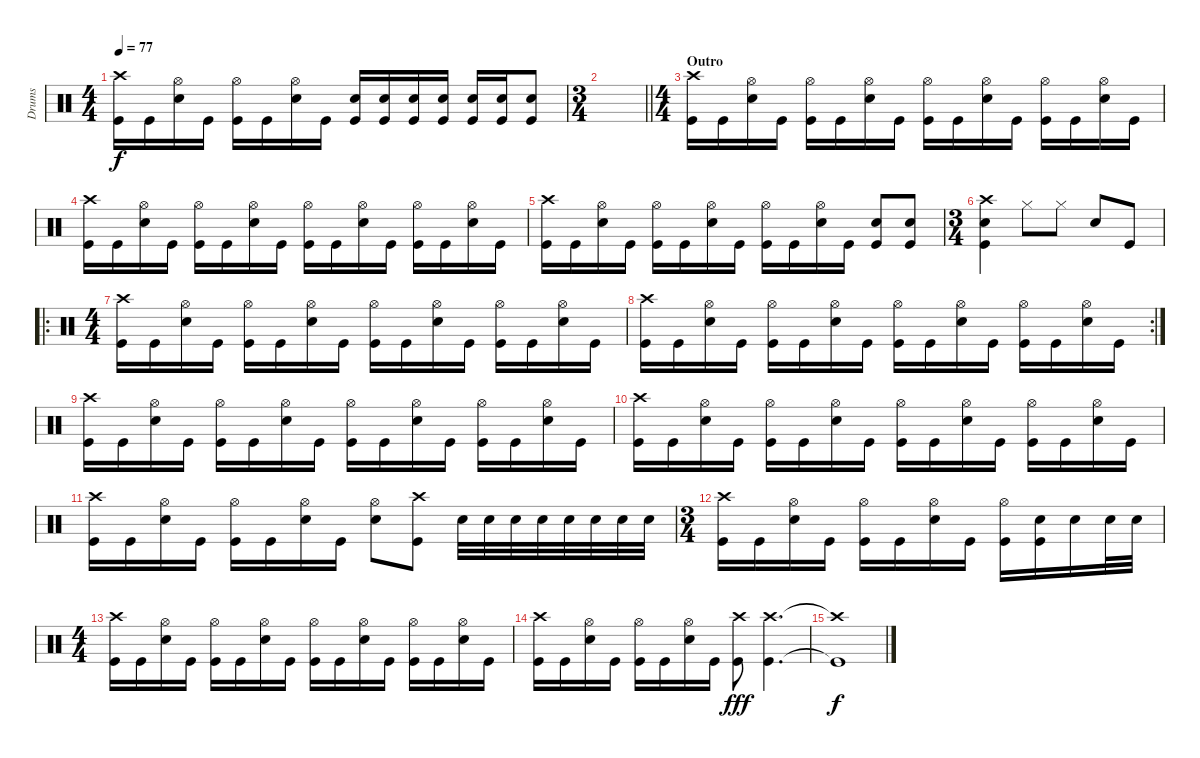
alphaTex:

\track ("Drums" "Drums") {instrument percussion}
\staff {score}
\articulation defaults
\ts (4 4)
\tempo 77
\clef neutral
\ks c
("Crash high (hit)" "Kick (hit)").16{dy f} "Kick (hit)".16 ("Hi-Hat (open)" "Snare (hit) 2").16 "Kick (hit)".16 ("Hi-Hat (open)" "Kick (hit)").16 "Kick (hit)".16 ("Hi-Hat (open)" "Snare (hit) 2").16 "Kick (hit)".16 ("Snare (hit) 2" "Kick (hit)").16 ("Snare (hit) 2" "Kick (hit)").16 ("Snare (hit) 2" "Kick (hit)").16 ("Snare (hit) 2" "Kick (hit)").16 ("Snare (hit) 2" "Kick (hit)").16 ("Snare (hit) 2" "Kick (hit)").16 ("Snare (hit) 2" "Kick (hit)").8 |
\ts (3 4)
\barLineRight lightlight
|
\ts (4 4)
\section ("" "Outro")
("Crash high (hit)" "Kick (hit)").16 "Kick (hit)".16 ("Hi-Hat (open)" "Snare (hit) 2").16 "Kick (hit)".16 ("Hi-Hat (open)" "Kick (hit)").16 "Kick (hit)".16 ("Hi-Hat (open)" "Snare (hit) 2").16 "Kick (hit)".16 ("Hi-Hat (open)" "Kick (hit)").16 "Kick (hit)".16 ("Hi-Hat (open)" "Snare (hit) 2").16 "Kick (hit)".16 ("Hi-Hat (open)" "Kick (hit)").16 "Kick (hit)".16 ("Hi-Hat (open)" "Snare (hit) 2").16 "Kick (hit)".16 |
("Crash high (hit)" "Kick (hit)").16 "Kick (hit)".16 ("Hi-Hat (open)" "Snare (hit) 2").16 "Kick (hit)".16 ("Hi-Hat (open)" "Kick (hit)").16 "Kick (hit)".16 ("Hi-Hat (open)" "Snare (hit) 2").16 "Kick (hit)".16 ("Hi-Hat (open)" "Kick (hit)").16 "Kick (hit)".16 ("Hi-Hat (open)" "Snare (hit) 2").16 "Kick (hit)".16 ("Hi-Hat (open)" "Kick (hit)").16 "Kick (hit)".16 ("Hi-Hat (open)" "Snare (hit) 2").16 "Kick (hit)".16 |
("Crash high (hit)" "Kick (hit)").16 "Kick (hit)".16 ("Hi-Hat (open)" "Snare (hit) 2").16 "Kick (hit)".16 ("Hi-Hat (open)" "Kick (hit)").16 "Kick (hit)".16 ("Hi-Hat (open)" "Snare (hit) 2").16 "Kick (hit)".16 ("Hi-Hat (open)" "Kick (hit)").16 "Kick (hit)".16 ("Hi-Hat (open)" "Snare (hit) 2").16 "Kick (hit)".16 ("Snare (hit) 2" "Kick (hit)").8 ("Snare (hit) 2" "Kick (hit)").8 |
\ts (3 4)
("Crash high (hit)" "Snare (hit) 2" "Kick (hit)").4 "Hi-Hat (closed)".8 "Hi-Hat (closed)".8 "Snare (hit) 2".8 "Kick (hit)".8 |
\ro
\ts (4 4)
("Crash high (hit)" "Kick (hit)").16 "Kick (hit)".16 ("Hi-Hat (open)" "Snare (hit) 2").16 "Kick (hit)".16 ("Hi-Hat (open)" "Kick (hit)").16 "Kick (hit)".16 ("Hi-Hat (open)" "Snare (hit) 2").16 "Kick (hit)".16 ("Hi-Hat (open)" "Kick (hit)").16 "Kick (hit)".16 ("Hi-Hat (open)" "Snare (hit) 2").16 "Kick (hit)".16 ("Hi-Hat (open)" "Kick (hit)").16 "Kick (hit)".16 ("Hi-Hat (open)" "Snare (hit) 2").16 "Kick (hit)".16 |
\rc 2
("Crash high (hit)" "Kick (hit)").16 "Kick (hit)".16 ("Hi-Hat (open)" "Snare (hit) 2").16 "Kick (hit)".16 ("Hi-Hat (open)" "Kick (hit)").16 "Kick (hit)".16 ("Hi-Hat (open)" "Snare (hit) 2").16 "Kick (hit)".16 ("Hi-Hat (open)" "Kick (hit)").16 "Kick (hit)".16 ("Hi-Hat (open)" "Snare (hit) 2").16 "Kick (hit)".16 ("Hi-Hat (open)" "Kick (hit)").16 "Kick (hit)".16 ("Hi-Hat (open)" "Snare (hit) 2").16 "Kick (hit)".16 |
("Crash high (hit)" "Kick (hit)").16 "Kick (hit)".16 ("Hi-Hat (open)" "Snare (hit) 2").16 "Kick (hit)".16 ("Hi-Hat (open)" "Kick (hit)").16 "Kick (hit)".16 ("Hi-Hat (open)" "Snare (hit) 2").16 "Kick (hit)".16 ("Hi-Hat (open)" "Kick (hit)").16 "Kick (hit)".16 ("Hi-Hat (open)" "Snare (hit) 2").16 "Kick (hit)".16 ("Hi-Hat (open)" "Kick (hit)").16 "Kick (hit)".16 ("Hi-Hat (open)" "Snare (hit) 2").16 "Kick (hit)".16 |
("Crash high (hit)" "Kick (hit)").16 "Kick (hit)".16 ("Hi-Hat (open)" "Snare (hit) 2").16 "Kick (hit)".16 ("Hi-Hat (open)" "Kick (hit)").16 "Kick (hit)".16 ("Hi-Hat (open)" "Snare (hit) 2").16 "Kick (hit)".16 ("Hi-Hat (open)" "Kick (hit)").16 "Kick (hit)".16 ("Hi-Hat (open)" "Snare (hit) 2").16 "Kick (hit)".16 ("Hi-Hat (open)" "Kick (hit)").16 "Kick (hit)".16 ("Hi-Hat (open)" "Snare (hit) 2").16 "Kick (hit)".16 |
("Crash high (hit)" "Kick (hit)").16 "Kick (hit)".16 ("Hi-Hat (open)" "Snare (hit) 2").16 "Kick (hit)".16 ("Hi-Hat (open)" "Kick (hit)").16 "Kick (hit)".16 ("Hi-Hat (open)" "Snare (hit) 2").16 "Kick (hit)".16 ("Hi-Hat (open)" "Snare (hit) 2").8 ("Crash high (hit)" "Kick (hit)").8 "Snare (hit) 2".32 "Snare (hit) 2".32 "Snare (hit) 2".32 "Snare (hit) 2".32 "Snare (hit) 2".32 "Snare (hit) 2".32 "Snare (hit) 2".32 "Snare (hit) 2".32 |
\ts (3 4)
("Crash high (hit)" "Kick (hit)").16 "Kick (hit)".16 ("Hi-Hat (open)" "Snare (hit) 2").16 "Kick (hit)".16 ("Hi-Hat (open)" "Kick (hit)").16 "Kick (hit)".16 ("Hi-Hat (open)" "Snare (hit) 2").16 "Kick (hit)".16 ("Hi-Hat (open)" "Kick (hit)").16 ("Snare (hit) 2" "Kick (hit)").16 "Snare (hit) 2".16 "Snare (hit) 2".32 "Snare (hit) 2".32 |
\ts (4 4)
("Crash high (hit)" "Kick (hit)").16 "Kick (hit)".16 ("Hi-Hat (open)" "Snare (hit) 2").16 "Kick (hit)".16 ("Hi-Hat (open)" "Kick (hit)").16 "Kick (hit)".16 ("Hi-Hat (open)" "Snare (hit) 2").16 "Kick (hit)".16 ("Hi-Hat (open)" "Kick (hit)").16 "Kick (hit)".16 ("Hi-Hat (open)" "Snare (hit) 2").16 "Kick (hit)".16 ("Hi-Hat (open)" "Kick (hit)").16 "Kick (hit)".16 ("Hi-Hat (open)" "Snare (hit) 2").16 "Kick (hit)".16 |
("Crash high (hit)" "Kick (hit)").16 "Kick (hit)".16 ("Hi-Hat (open)" "Snare (hit) 2").16 "Kick (hit)".16 ("Hi-Hat (open)" "Kick (hit)").16 "Kick (hit)".16 ("Hi-Hat (open)" "Snare (hit) 2").16 "Kick (hit)".16 ("Crash high (hit)" "Kick (hit)").8{dy fff} ("Crash high (hit)" "Kick (hit)").4{d} |
("Crash high (hit)"{t} "Kick (hit)"{t}).1{dy f}
